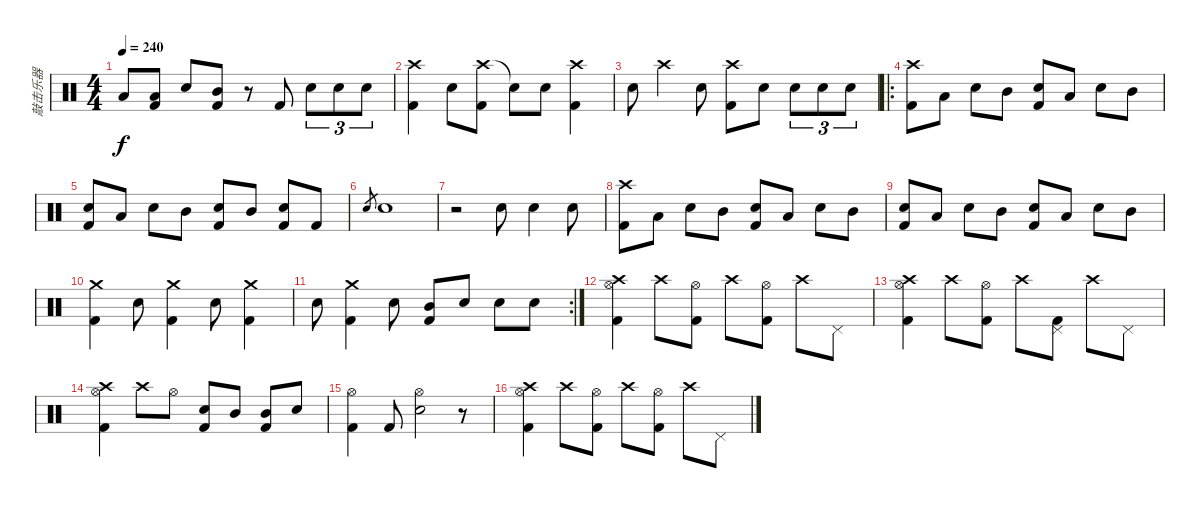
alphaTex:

\track ("敲击乐器" "敲击乐器") {instrument percussion}
\staff {score}
\articulation defaults
\ts (4 4)
\tempo 240
\clef neutral
\ks c "Low Tom (hit)".8{dy f}
("Low Tom (hit)" "Kick (hit) 2").8 "Electric Snare (hit)".8 ("Mid Tom (hit)" "Kick (hit) 2").8 r.8 "Kick (hit) 2".8 "Electric Snare (hit)".8{tu (3 2)} "Electric Snare (hit)".8{tu (3 2)} "Electric Snare (hit)".8{tu (3 2)} |
("Crash high (hit)" "Kick (hit) 2").4 "Electric Snare (hit)".8 ("Crash high (hit)" "Kick (hit) 2").8 "Snare (hit)"{t}.8 "Electric Snare (hit)".8 ("Crash high (hit)" "Kick (hit) 2").4 |
"Electric Snare (hit)".8 "Crash high (hit)".4 "Electric Snare (hit)".8 ("Crash high (hit)" "Kick (hit) 2").8 "Electric Snare (hit)".8 "Electric Snare (hit)".8{tu (3 2)} "Electric Snare (hit)".8{tu (3 2)} "Electric Snare (hit)".8{tu (3 2)} |
\ro
("Crash high (hit)" "Kick (hit) 2").8 "Low Tom (hit)".8 "Electric Snare (hit)".8 "Mid Tom (hit)".8 ("Snare (hit) 2" "Kick (hit) 2").8 "Low Tom (hit)".8 "Electric Snare (hit)".8 "Mid Tom (hit)".8 |
("Snare (hit) 2" "Kick (hit) 2").8 "Low Tom (hit)".8 "Electric Snare (hit)".8 "Mid Tom (hit)".8 ("Snare (hit) 2" "Kick (hit) 2").8 "Mid Tom (hit)".8 ("Snare (hit) 2" "Kick (hit) 2").8 "Kick (hit) 2".8 |
"Electric Snare (hit)".8{gr} "Electric Snare (hit)".1 |
r.2 "Electric Snare (hit)".8 "Electric Snare (hit)".4 "Electric Snare (hit)".8 |
("Crash high (hit)" "Kick (hit) 2").8 "Low Tom (hit)".8 "Electric Snare (hit)".8 "Mid Tom (hit)".8 ("Snare (hit) 2" "Kick (hit) 2").8 "Low Tom (hit)".8 "Electric Snare (hit)".8 "Mid Tom (hit)".8 |
("Snare (hit) 2" "Kick (hit) 2").8 "Low Tom (hit)".8 "Electric Snare (hit)".8 "Mid Tom (hit)".8 ("Snare (hit) 2" "Kick (hit) 2").8 "Low Tom (hit)".8 "Electric Snare (hit)".8 "Mid Tom (hit)".8 |
("Crash medium (hit)" "Kick (hit) 2").4 "Electric Snare (hit)".8 ("Crash medium (hit)" "Kick (hit) 2").4 "Electric Snare (hit)".8 ("Crash medium (hit)" "Kick (hit) 2").4 |
\rc 2 "Electric Snare (hit)".8
("Crash medium (hit)" "Kick (hit) 2").4 "Electric Snare (hit)".8 ("Mid Tom (hit)" "Kick (hit) 2").8 "Electric Snare (hit)".8 "Electric Snare (hit)".8 "Electric Snare (hit)".8 |
("Crash high (hit)" "Hi-Hat (open)" "Kick (hit) 2").4 "Crash high (hit)".8 ("Hi-Hat (open)" "Kick (hit) 2").8 "Crash high (hit)".8 ("Hi-Hat (open)" "Kick (hit) 2").8 "Crash high (hit)".8 "Pedal Hi-Hat (hit)".8 |
("Crash high (hit)" "Hi-Hat (open)" "Kick (hit) 2").4 "Crash high (hit)".8 ("Hi-Hat (open)" "Kick (hit) 2").8 "Crash high (hit)".8 ("Pedal Hi-Hat (hit)" "Kick (hit) 2").8 "Crash high (hit)".8 "Pedal Hi-Hat (hit)".8 |
("Crash high (hit)" "Hi-Hat (open)" "Kick (hit) 2").4 "Crash high (hit)".8 "Hi-Hat (open)".8 ("Electric Snare (hit)" "Kick (hit) 2").8 "Mid Tom (hit)".8 ("Mid Tom (hit)" "Kick (hit) 2").8 "Snare (hit) 2".8 |
("Hi-Hat (open)" "Kick (hit) 2").4 "Kick (hit) 2".8 ("Hi-Hat (open)" "Electric Snare (hit)").2 r.8 |
("Crash high (hit)" "Hi-Hat (open)" "Kick (hit) 2").4 "Crash high (hit)".8 ("Hi-Hat (open)" "Kick (hit) 2").8 "Crash high (hit)".8 ("Hi-Hat (open)" "Kick (hit) 2").8 "Crash high (hit)".8 "Pedal Hi-Hat (hit)".8
